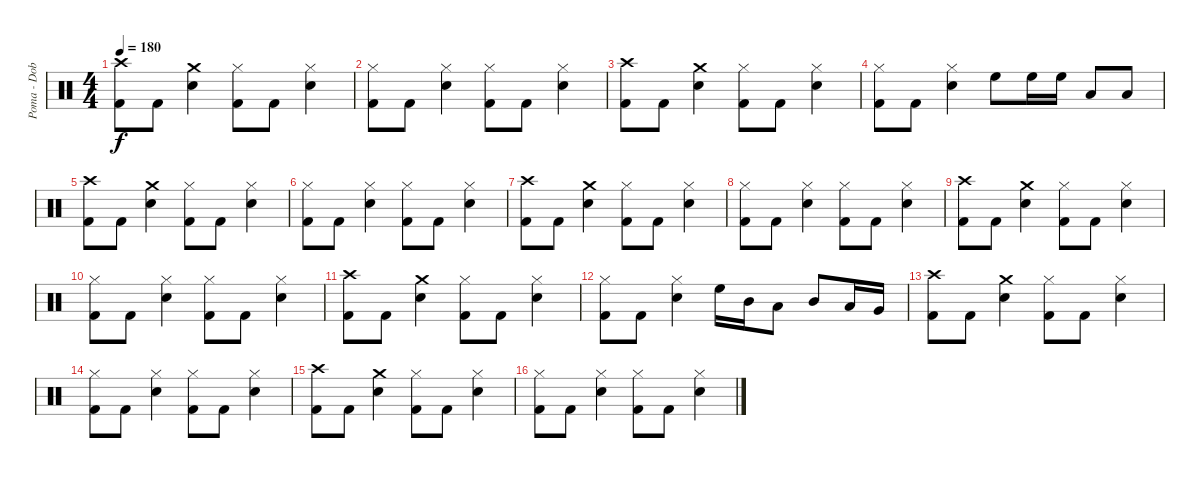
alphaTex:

\track ("Poma - Dob" "Poma - Dob") {instrument percussion}
\staff {score}
\articulation defaults
\ts (4 4)
\tempo 180
\clef neutral
\ks c
("Crash high (hit)" "Kick (hit) 2").8{dy f} "Kick (hit) 2".8 ("Crash medium (hit)" "Electric Snare (hit)").4 ("Hi-Hat (closed)" "Kick (hit) 2").8 "Kick (hit) 2".8 ("Hi-Hat (closed)" "Electric Snare (hit)").4 |
("Hi-Hat (closed)" "Kick (hit) 2").8 "Kick (hit) 2".8 ("Hi-Hat (closed)" "Electric Snare (hit)").4 ("Hi-Hat (closed)" "Kick (hit) 2").8 "Kick (hit) 2".8 ("Hi-Hat (closed)" "Electric Snare (hit)").4 |
("Crash high (hit)" "Kick (hit) 2").8 "Kick (hit) 2".8 ("Crash medium (hit)" "Electric Snare (hit)").4 ("Hi-Hat (closed)" "Kick (hit) 2").8 "Kick (hit) 2".8 ("Hi-Hat (closed)" "Electric Snare (hit)").4 |
("Hi-Hat (closed)" "Kick (hit) 2").8 "Kick (hit) 2".8 ("Hi-Hat (closed)" "Electric Snare (hit)").4 "High Floor Tom (hit)".8 "High Floor Tom (hit)".16 "High Floor Tom (hit)".16 "Low Tom (hit)".8 "Low Tom (hit)".8 |
("Crash high (hit)" "Kick (hit) 2").8 "Kick (hit) 2".8 ("Crash medium (hit)" "Electric Snare (hit)").4 ("Hi-Hat (closed)" "Kick (hit) 2").8 "Kick (hit) 2".8 ("Hi-Hat (closed)" "Electric Snare (hit)").4 |
("Hi-Hat (closed)" "Kick (hit) 2").8 "Kick (hit) 2".8 ("Hi-Hat (closed)" "Electric Snare (hit)").4 ("Hi-Hat (closed)" "Kick (hit) 2").8 "Kick (hit) 2".8 ("Hi-Hat (closed)" "Electric Snare (hit)").4 |
("Crash high (hit)" "Kick (hit) 2").8 "Kick (hit) 2".8 ("Crash medium (hit)" "Electric Snare (hit)").4 ("Hi-Hat (closed)" "Kick (hit) 2").8 "Kick (hit) 2".8 ("Hi-Hat (closed)" "Electric Snare (hit)").4 |
("Hi-Hat (closed)" "Kick (hit) 2").8 "Kick (hit) 2".8 ("Hi-Hat (closed)" "Electric Snare (hit)").4 ("Hi-Hat (closed)" "Kick (hit) 2").8 "Kick (hit) 2".8 ("Hi-Hat (closed)" "Electric Snare (hit)").4 |
("Crash high (hit)" "Kick (hit) 2").8 "Kick (hit) 2".8 ("Crash medium (hit)" "Electric Snare (hit)").4 ("Hi-Hat (closed)" "Kick (hit) 2").8 "Kick (hit) 2".8 ("Hi-Hat (closed)" "Electric Snare (hit)").4 |
("Hi-Hat (closed)" "Kick (hit) 2").8 "Kick (hit) 2".8 ("Hi-Hat (closed)" "Electric Snare (hit)").4 ("Hi-Hat (closed)" "Kick (hit) 2").8 "Kick (hit) 2".8 ("Hi-Hat (closed)" "Electric Snare (hit)").4 |
("Crash high (hit)" "Kick (hit) 2").8 "Kick (hit) 2".8 ("Crash medium (hit)" "Electric Snare (hit)").4 ("Hi-Hat (closed)" "Kick (hit) 2").8 "Kick (hit) 2".8 ("Hi-Hat (closed)" "Electric Snare (hit)").4 |
("Hi-Hat (closed)" "Kick (hit) 2").8 "Kick (hit) 2".8 ("Hi-Hat (closed)" "Electric Snare (hit)").4 "High Floor Tom (hit)".16 "Mid Tom (hit)".16 "Low Tom (hit)".8 "Mid Tom (hit)".8 "Low Tom (hit)".16 "Very Low Tom (hit)".16 |
("Crash high (hit)" "Kick (hit) 2").8 "Kick (hit) 2".8 ("Crash medium (hit)" "Electric Snare (hit)").4 ("Hi-Hat (closed)" "Kick (hit) 2").8 "Kick (hit) 2".8 ("Hi-Hat (closed)" "Electric Snare (hit)").4 |
("Hi-Hat (closed)" "Kick (hit) 2").8 "Kick (hit) 2".8 ("Hi-Hat (closed)" "Electric Snare (hit)").4 ("Hi-Hat (closed)" "Kick (hit) 2").8 "Kick (hit) 2".8 ("Hi-Hat (closed)" "Electric Snare (hit)").4 |
("Crash high (hit)" "Kick (hit) 2").8 "Kick (hit) 2".8 ("Crash medium (hit)" "Electric Snare (hit)").4 ("Hi-Hat (closed)" "Kick (hit) 2").8 "Kick (hit) 2".8 ("Hi-Hat (closed)" "Electric Snare (hit)").4 |
("Hi-Hat (closed)" "Kick (hit) 2").8 "Kick (hit) 2".8 ("Hi-Hat (closed)" "Electric Snare (hit)").4 ("Hi-Hat (closed)" "Kick (hit) 2").8 "Kick (hit) 2".8 ("Hi-Hat (closed)" "Electric Snare (hit)").4
